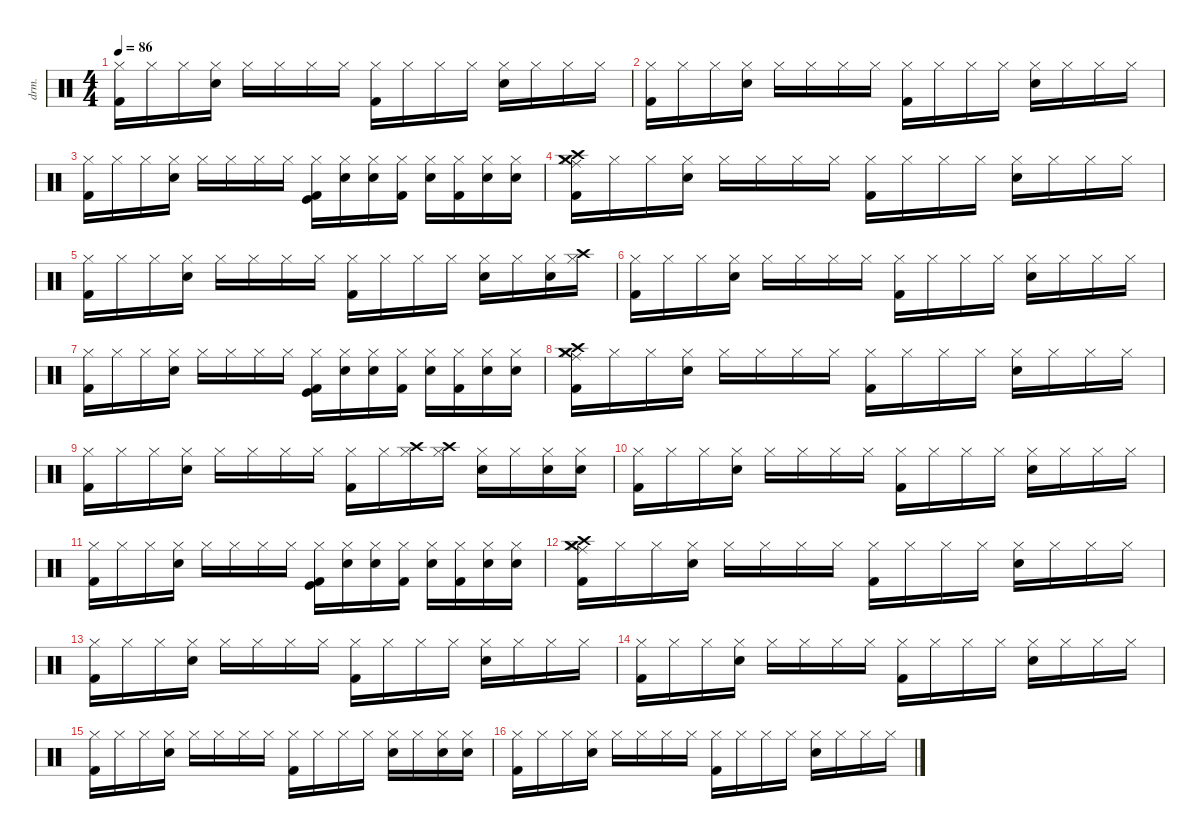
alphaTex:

\defaultSystemsLayout 4
\hideDynamics
\bracketExtendMode nobrackets
\otherSystemsTrackNameOrientation horizontal
\track ("Drums" "drm.") {instrument percussion}
\staff {score}
\articulation defaults
\ts (4 4)
\tempo 86
\clef neutral
\ks c
("Hi-Hat (closed)" "Kick (hit) 2").16{dy mf beam Down} "Hi-Hat (closed)".16{beam Down} "Hi-Hat (closed)".16{beam Down} ("Hi-Hat (closed)" "Snare (hit) 2").16{beam Down} "Hi-Hat (closed)".16{beam Down} "Hi-Hat (closed)".16{beam Down} "Hi-Hat (closed)".16{beam Down} "Hi-Hat (closed)".16{beam Down} ("Hi-Hat (closed)" "Kick (hit) 2").16{beam Down} "Hi-Hat (closed)".16{beam Down} "Hi-Hat (closed)".16{beam Down} "Hi-Hat (closed)".16{beam Down} ("Hi-Hat (closed)" "Snare (hit) 2").16{beam Down} "Hi-Hat (closed)".16{beam Down} "Hi-Hat (closed)".16{beam Down} "Hi-Hat (closed)".16{beam Down} |
("Hi-Hat (closed)" "Kick (hit) 2").16{beam Down} "Hi-Hat (closed)".16{beam Down} "Hi-Hat (closed)".16{beam Down} ("Hi-Hat (closed)" "Snare (hit) 2").16{beam Down} "Hi-Hat (closed)".16{beam Down} "Hi-Hat (closed)".16{beam Down} "Hi-Hat (closed)".16{beam Down} "Hi-Hat (closed)".16{beam Down} ("Hi-Hat (closed)" "Kick (hit) 2").16{beam Down} "Hi-Hat (closed)".16{beam Down} "Hi-Hat (closed)".16{beam Down} "Hi-Hat (closed)".16{beam Down} ("Hi-Hat (closed)" "Snare (hit) 2").16{beam Down} "Hi-Hat (closed)".16{beam Down} "Hi-Hat (closed)".16{beam Down} "Hi-Hat (closed)".16{beam Down} |
("Hi-Hat (closed)" "Kick (hit) 2").16{beam Down} "Hi-Hat (closed)".16{beam Down} "Hi-Hat (closed)".16{beam Down} ("Hi-Hat (closed)" "Snare (hit) 2").16{beam Down} "Hi-Hat (closed)".16{beam Down} "Hi-Hat (closed)".16{beam Down} "Hi-Hat (closed)".16{beam Down} "Hi-Hat (closed)".16{beam Down} ("Hi-Hat (closed)" "Kick (hit)" "Kick (hit) 2").16{beam Down} ("Hi-Hat (closed)" "Snare (hit) 2").16{beam Down} ("Hi-Hat (closed)" "Snare (hit) 2").16{beam Down} ("Hi-Hat (closed)" "Kick (hit) 2").16{beam Down} ("Hi-Hat (closed)" "Snare (hit) 2").16{beam Down} ("Hi-Hat (closed)" "Kick (hit) 2").16{beam Down} ("Hi-Hat (closed)" "Snare (hit) 2").16{beam Down} ("Hi-Hat (closed)" "Snare (hit) 2").16{beam Down} |
("Hi-Hat (closed)" "Crash high (hit)" "Ride (middle)" "Crash medium (hit)" "Kick (hit) 2").16{beam Down} "Hi-Hat (closed)".16{beam Down} "Hi-Hat (closed)".16{beam Down} ("Hi-Hat (closed)" "Snare (hit) 2").16{beam Down} "Hi-Hat (closed)".16{beam Down} "Hi-Hat (closed)".16{beam Down} "Hi-Hat (closed)".16{beam Down} "Hi-Hat (closed)".16{beam Down} ("Hi-Hat (closed)" "Kick (hit) 2").16{beam Down} "Hi-Hat (closed)".16{beam Down} "Hi-Hat (closed)".16{beam Down} "Hi-Hat (closed)".16{beam Down} ("Hi-Hat (closed)" "Snare (hit) 2").16{beam Down} "Hi-Hat (closed)".16{beam Down} "Hi-Hat (closed)".16{beam Down} "Hi-Hat (closed)".16{beam Down} |
("Hi-Hat (closed)" "Kick (hit) 2").16{beam Down} "Hi-Hat (closed)".16{beam Down} "Hi-Hat (closed)".16{beam Down} ("Hi-Hat (closed)" "Snare (hit) 2").16{beam Down} "Hi-Hat (closed)".16{beam Down} "Hi-Hat (closed)".16{beam Down} "Hi-Hat (closed)".16{beam Down} "Hi-Hat (closed)".16{beam Down} ("Hi-Hat (closed)" "Kick (hit) 2").16{beam Down} "Hi-Hat (closed)".16{beam Down} "Hi-Hat (closed)".16{beam Down} "Hi-Hat (closed)".16{beam Down} ("Hi-Hat (closed)" "Snare (hit) 2").16{beam Down} "Hi-Hat (closed)".16{beam Down} ("Hi-Hat (closed)" "Snare (hit) 2").16{beam Down} ("Hi-Hat (closed)" "Crash high (hit)").16{beam Down} |
("Hi-Hat (closed)" "Kick (hit) 2").16{beam Down} "Hi-Hat (closed)".16{beam Down} "Hi-Hat (closed)".16{beam Down} ("Hi-Hat (closed)" "Snare (hit) 2").16{beam Down} "Hi-Hat (closed)".16{beam Down} "Hi-Hat (closed)".16{beam Down} "Hi-Hat (closed)".16{beam Down} "Hi-Hat (closed)".16{beam Down} ("Hi-Hat (closed)" "Kick (hit) 2").16{beam Down} "Hi-Hat (closed)".16{beam Down} "Hi-Hat (closed)".16{beam Down} "Hi-Hat (closed)".16{beam Down} ("Hi-Hat (closed)" "Snare (hit) 2").16{beam Down} "Hi-Hat (closed)".16{beam Down} "Hi-Hat (closed)".16{beam Down} "Hi-Hat (closed)".16{beam Down} |
("Hi-Hat (closed)" "Kick (hit) 2").16{beam Down} "Hi-Hat (closed)".16{beam Down} "Hi-Hat (closed)".16{beam Down} ("Hi-Hat (closed)" "Snare (hit) 2").16{beam Down} "Hi-Hat (closed)".16{beam Down} "Hi-Hat (closed)".16{beam Down} "Hi-Hat (closed)".16{beam Down} "Hi-Hat (closed)".16{beam Down} ("Hi-Hat (closed)" "Kick (hit)" "Kick (hit) 2").16{beam Down} ("Hi-Hat (closed)" "Snare (hit) 2").16{beam Down} ("Hi-Hat (closed)" "Snare (hit) 2").16{beam Down} ("Hi-Hat (closed)" "Kick (hit) 2").16{beam Down} ("Hi-Hat (closed)" "Snare (hit) 2").16{beam Down} ("Hi-Hat (closed)" "Kick (hit) 2").16{beam Down} ("Hi-Hat (closed)" "Snare (hit) 2").16{beam Down} ("Hi-Hat (closed)" "Snare (hit) 2").16{beam Down} |
("Hi-Hat (closed)" "Crash high (hit)" "Ride (middle)" "Crash medium (hit)" "Kick (hit) 2").16{beam Down} "Hi-Hat (closed)".16{beam Down} "Hi-Hat (closed)".16{beam Down} ("Hi-Hat (closed)" "Snare (hit) 2").16{beam Down} "Hi-Hat (closed)".16{beam Down} "Hi-Hat (closed)".16{beam Down} "Hi-Hat (closed)".16{beam Down} "Hi-Hat (closed)".16{beam Down} ("Hi-Hat (closed)" "Kick (hit) 2").16{beam Down} "Hi-Hat (closed)".16{beam Down} "Hi-Hat (closed)".16{beam Down} "Hi-Hat (closed)".16{beam Down} ("Hi-Hat (closed)" "Snare (hit) 2").16{beam Down} "Hi-Hat (closed)".16{beam Down} "Hi-Hat (closed)".16{beam Down} "Hi-Hat (closed)".16{beam Down} |
("Hi-Hat (closed)" "Kick (hit) 2").16{beam Down} "Hi-Hat (closed)".16{beam Down} "Hi-Hat (closed)".16{beam Down} ("Hi-Hat (closed)" "Snare (hit) 2").16{beam Down} "Hi-Hat (closed)".16{beam Down} "Hi-Hat (closed)".16{beam Down} "Hi-Hat (closed)".16{beam Down} "Hi-Hat (closed)".16{beam Down} ("Hi-Hat (closed)" "Kick (hit) 2").16{beam Down} "Hi-Hat (closed)".16{beam Down} ("Hi-Hat (closed)" "Crash high (hit)").16{beam Down} ("Hi-Hat (closed)" "Crash high (hit)").16{beam Down} ("Hi-Hat (closed)" "Snare (hit) 2").16{beam Down} "Hi-Hat (closed)".16{beam Down} ("Hi-Hat (closed)" "Snare (hit) 2").16{beam Down} ("Hi-Hat (closed)" "Snare (hit) 2").16{beam Down} |
("Hi-Hat (closed)" "Kick (hit) 2").16{beam Down} "Hi-Hat (closed)".16{beam Down} "Hi-Hat (closed)".16{beam Down} ("Hi-Hat (closed)" "Snare (hit) 2").16{beam Down} "Hi-Hat (closed)".16{beam Down} "Hi-Hat (closed)".16{beam Down} "Hi-Hat (closed)".16{beam Down} "Hi-Hat (closed)".16{beam Down} ("Hi-Hat (closed)" "Kick (hit) 2").16{beam Down} "Hi-Hat (closed)".16{beam Down} "Hi-Hat (closed)".16{beam Down} "Hi-Hat (closed)".16{beam Down} ("Hi-Hat (closed)" "Snare (hit) 2").16{beam Down} "Hi-Hat (closed)".16{beam Down} "Hi-Hat (closed)".16{beam Down} "Hi-Hat (closed)".16{beam Down} |
("Hi-Hat (closed)" "Kick (hit) 2").16{beam Down} "Hi-Hat (closed)".16{beam Down} "Hi-Hat (closed)".16{beam Down} ("Hi-Hat (closed)" "Snare (hit) 2").16{beam Down} "Hi-Hat (closed)".16{beam Down} "Hi-Hat (closed)".16{beam Down} "Hi-Hat (closed)".16{beam Down} "Hi-Hat (closed)".16{beam Down} ("Hi-Hat (closed)" "Kick (hit)" "Kick (hit) 2").16{beam Down} ("Hi-Hat (closed)" "Snare (hit) 2").16{beam Down} ("Hi-Hat (closed)" "Snare (hit) 2").16{beam Down} ("Hi-Hat (closed)" "Kick (hit) 2").16{beam Down} ("Hi-Hat (closed)" "Snare (hit) 2").16{beam Down} ("Hi-Hat (closed)" "Kick (hit) 2").16{beam Down} ("Hi-Hat (closed)" "Snare (hit) 2").16{beam Down} ("Hi-Hat (closed)" "Snare (hit) 2").16{beam Down} |
("Hi-Hat (closed)" "Crash high (hit)" "Ride (middle)" "Crash medium (hit)" "Kick (hit) 2").16{beam Down} "Hi-Hat (closed)".16{beam Down} "Hi-Hat (closed)".16{beam Down} ("Hi-Hat (closed)" "Snare (hit) 2").16{beam Down} "Hi-Hat (closed)".16{beam Down} "Hi-Hat (closed)".16{beam Down} "Hi-Hat (closed)".16{beam Down} "Hi-Hat (closed)".16{beam Down} ("Hi-Hat (closed)" "Kick (hit) 2").16{beam Down} "Hi-Hat (closed)".16{beam Down} "Hi-Hat (closed)".16{beam Down} "Hi-Hat (closed)".16{beam Down} ("Hi-Hat (closed)" "Snare (hit) 2").16{beam Down} "Hi-Hat (closed)".16{beam Down} "Hi-Hat (closed)".16{beam Down} "Hi-Hat (closed)".16{beam Down} |
("Hi-Hat (closed)" "Kick (hit) 2").16{beam Down} "Hi-Hat (closed)".16{beam Down} "Hi-Hat (closed)".16{beam Down} ("Hi-Hat (closed)" "Snare (hit) 2").16{beam Down} "Hi-Hat (closed)".16{beam Down} "Hi-Hat (closed)".16{beam Down} "Hi-Hat (closed)".16{beam Down} "Hi-Hat (closed)".16{beam Down} ("Hi-Hat (closed)" "Kick (hit) 2").16{beam Down} "Hi-Hat (closed)".16{beam Down} "Hi-Hat (closed)".16{beam Down} "Hi-Hat (closed)".16{beam Down} ("Hi-Hat (closed)" "Snare (hit) 2").16{beam Down} "Hi-Hat (closed)".16{beam Down} "Hi-Hat (closed)".16{beam Down} "Hi-Hat (closed)".16{beam Down} |
("Hi-Hat (closed)" "Kick (hit) 2").16{beam Down} "Hi-Hat (closed)".16{beam Down} "Hi-Hat (closed)".16{beam Down} ("Hi-Hat (closed)" "Snare (hit) 2").16{beam Down} "Hi-Hat (closed)".16{beam Down} "Hi-Hat (closed)".16{beam Down} "Hi-Hat (closed)".16{beam Down} "Hi-Hat (closed)".16{beam Down} ("Hi-Hat (closed)" "Kick (hit) 2").16{beam Down} "Hi-Hat (closed)".16{beam Down} "Hi-Hat (closed)".16{beam Down} "Hi-Hat (closed)".16{beam Down} ("Hi-Hat (closed)" "Snare (hit) 2").16{beam Down} "Hi-Hat (closed)".16{beam Down} "Hi-Hat (closed)".16{beam Down} "Hi-Hat (closed)".16{beam Down} |
("Hi-Hat (closed)" "Kick (hit) 2").16{beam Down} "Hi-Hat (closed)".16{beam Down} "Hi-Hat (closed)".16{beam Down} ("Hi-Hat (closed)" "Snare (hit) 2").16{beam Down} "Hi-Hat (closed)".16{beam Down} "Hi-Hat (closed)".16{beam Down} "Hi-Hat (closed)".16{beam Down} "Hi-Hat (closed)".16{beam Down} ("Hi-Hat (closed)" "Kick (hit) 2").16{beam Down} "Hi-Hat (closed)".16{beam Down} "Hi-Hat (closed)".16{beam Down} "Hi-Hat (closed)".16{beam Down} ("Hi-Hat (closed)" "Snare (hit) 2").16{beam Down} "Hi-Hat (closed)".16{beam Down} ("Hi-Hat (closed)" "Snare (hit) 2").16{beam Down} ("Hi-Hat (closed)" "Snare (hit) 2").16{beam Down} |
("Hi-Hat (closed)" "Kick (hit) 2").16{beam Down} "Hi-Hat (closed)".16{beam Down} "Hi-Hat (closed)".16{beam Down} ("Hi-Hat (closed)" "Snare (hit) 2").16{beam Down} "Hi-Hat (closed)".16{beam Down} "Hi-Hat (closed)".16{beam Down} "Hi-Hat (closed)".16{beam Down} "Hi-Hat (closed)".16{beam Down} ("Hi-Hat (closed)" "Kick (hit) 2").16{beam Down} "Hi-Hat (closed)".16{beam Down} "Hi-Hat (closed)".16{beam Down} "Hi-Hat (closed)".16{beam Down} ("Hi-Hat (closed)" "Snare (hit) 2").16{beam Down} "Hi-Hat (closed)".16{beam Down} "Hi-Hat (closed)".16{beam Down} "Hi-Hat (closed)".16{beam Down}
